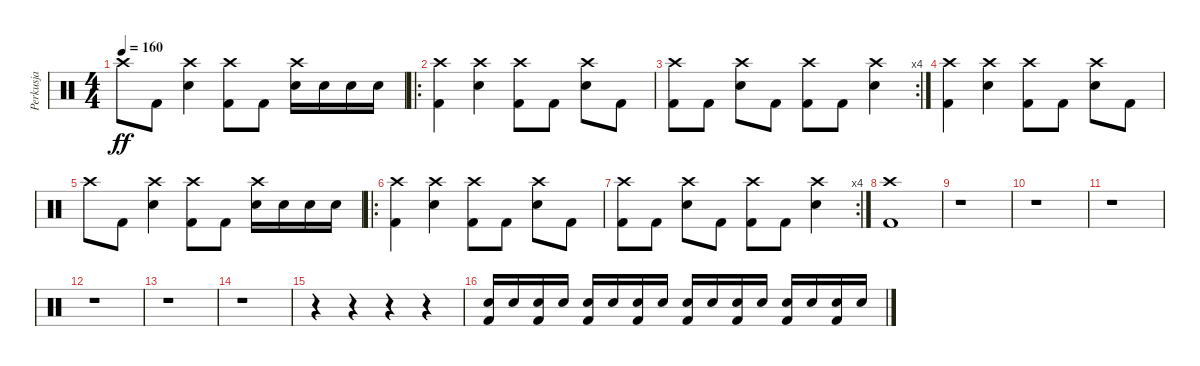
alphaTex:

\track ("Perkusja" "Perkusja") {instrument percussion}
\staff {score}
\articulation defaults
\ts (4 4)
\tempo 160
\clef neutral
\ks c "Crash high (hit)".8{dy ff} "Kick (hit) 2".8
("Crash high (hit)" "Snare (hit) 2").4 ("Crash high (hit)" "Kick (hit) 2").8 "Kick (hit) 2".8 ("Crash high (hit)" "Snare (hit) 2").16 "Snare (hit) 2".16 "Snare (hit) 2".16 "Snare (hit) 2".16 |
\ro
("Crash high (hit)" "Kick (hit) 2").4 ("Crash high (hit)" "Snare (hit) 2").4 ("Crash high (hit)" "Kick (hit) 2").8 "Kick (hit) 2".8 ("Crash high (hit)" "Snare (hit) 2").8 "Kick (hit) 2".8 |
\rc 4
("Crash high (hit)" "Kick (hit) 2").8 "Kick (hit) 2".8 ("Crash high (hit)" "Snare (hit) 2").8 "Kick (hit) 2".8 ("Crash high (hit)" "Kick (hit) 2").8 "Kick (hit) 2".8 ("Crash high (hit)" "Snare (hit) 2").4 |
("Crash high (hit)" "Kick (hit) 2").4 ("Crash high (hit)" "Snare (hit) 2").4 ("Crash high (hit)" "Kick (hit) 2").8 "Kick (hit) 2".8 ("Crash high (hit)" "Snare (hit) 2").8 "Kick (hit) 2".8 |
"Crash high (hit)".8 "Kick (hit) 2".8 ("Crash high (hit)" "Snare (hit) 2").4 ("Crash high (hit)" "Kick (hit) 2").8 "Kick (hit) 2".8 ("Crash high (hit)" "Snare (hit) 2").16 "Snare (hit) 2".16 "Snare (hit) 2".16 "Snare (hit) 2".16 |
\ro
("Crash high (hit)" "Kick (hit) 2").4 ("Crash high (hit)" "Snare (hit) 2").4 ("Crash high (hit)" "Kick (hit) 2").8 "Kick (hit) 2".8 ("Crash high (hit)" "Snare (hit) 2").8 "Kick (hit) 2".8 |
\rc 4
("Crash high (hit)" "Kick (hit) 2").8 "Kick (hit) 2".8 ("Crash high (hit)" "Snare (hit) 2").8 "Kick (hit) 2".8 ("Crash high (hit)" "Kick (hit) 2").8 "Kick (hit) 2".8 ("Crash high (hit)" "Snare (hit) 2").4 |
("Crash high (hit)" "Kick (hit) 2").1 |
r.1 |
r.1 |
r.1 |
r.1 |
r.1 |
r.1 |
r.4 r.4 r.4 r.4 |
("Snare (hit) 2" "Kick (hit) 2").16 "Snare (hit) 2".16 ("Snare (hit) 2" "Kick (hit) 2").16 "Snare (hit) 2".16 ("Snare (hit) 2" "Kick (hit) 2").16 "Snare (hit) 2".16 ("Snare (hit) 2" "Kick (hit) 2").16 "Snare (hit) 2".16 ("Snare (hit) 2" "Kick (hit) 2").16 "Snare (hit) 2".16 ("Snare (hit) 2" "Kick (hit) 2").16 "Snare (hit) 2".16 ("Snare (hit) 2" "Kick (hit) 2").16 "Snare (hit) 2".16 ("Snare (hit) 2" "Kick (hit) 2").16 "Snare (hit) 2".16
